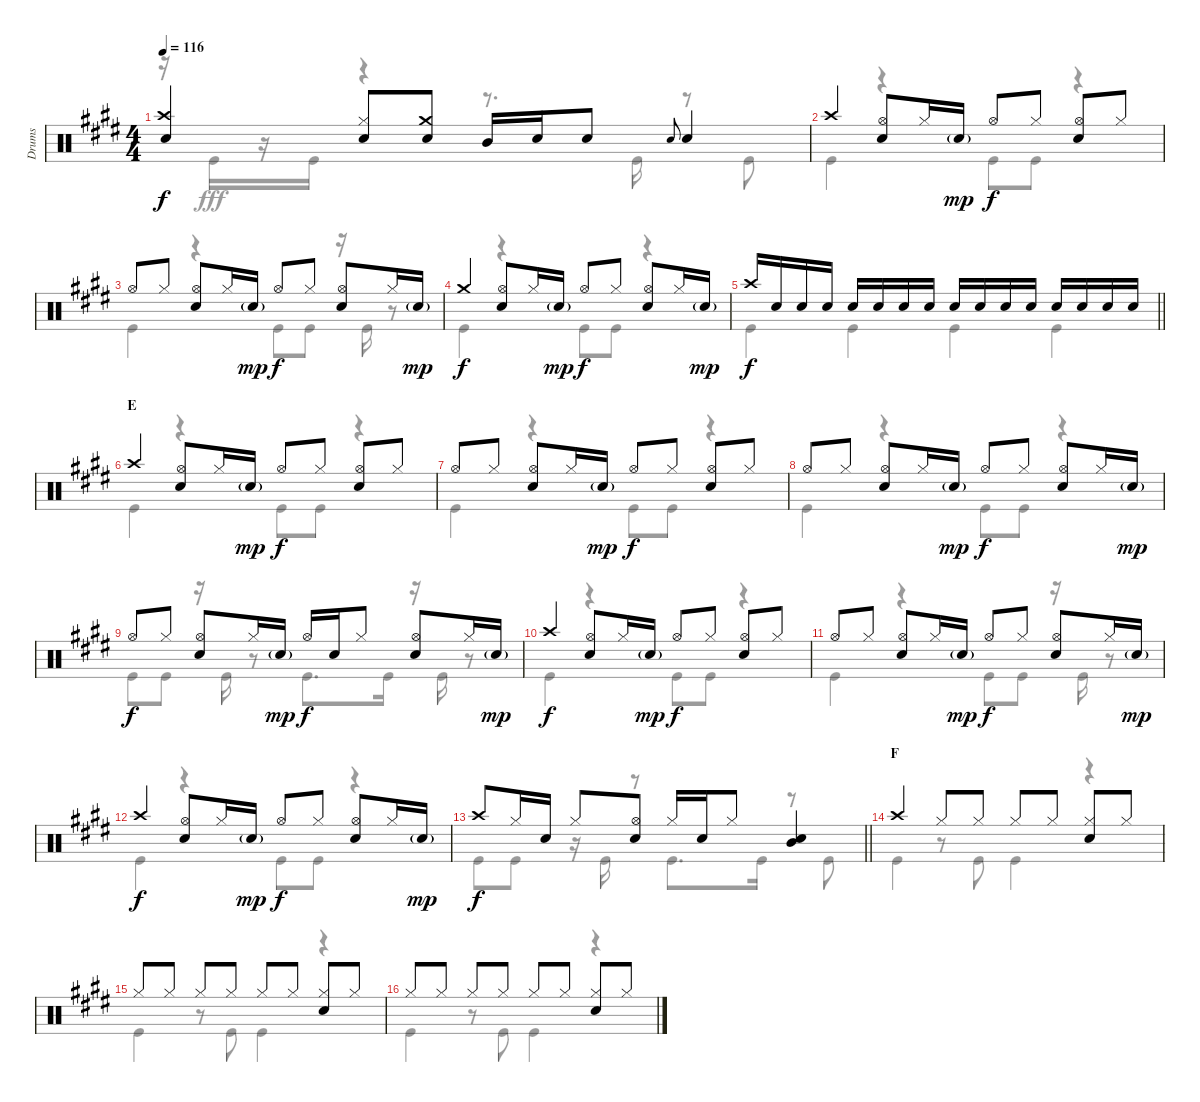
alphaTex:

\track ("Drums" "Drums") {instrument percussion}
\staff {score}
\articulation defaults
\voice
\ts (4 4)
\tempo 116
\clef neutral
\ks e
("Crash high (hit)" "Snare (hit) 2").4{dy f} ("Hi-Hat (closed)" "Snare (hit) 2").8 ("Crash medium (hit)" "Snare (hit) 2").8 "Mid Tom (hit)".16 "Snare (hit) 2".16 "Snare (hit) 2".8 "Snare (hit) 2".8{gr onbeat} "Snare (hit) 2".4 |
"Crash high (hit)".4 ("Hi-Hat (open)" "Snare (hit) 2").8 "Hi-Hat (closed)".16 "Snare (hit) 2"{g}.16{dy mp} "Hi-Hat (open)".8{dy f} "Hi-Hat (closed)".8 ("Snare (hit) 2" "Hi-Hat (open)").8 "Hi-Hat (closed)".8 |
"Hi-Hat (open)".8 "Hi-Hat (closed)".8 ("Hi-Hat (open)" "Snare (hit) 2").8 "Hi-Hat (closed)".16 "Snare (hit) 2"{g}.16{dy mp} "Hi-Hat (open)".8{dy f} "Hi-Hat (closed)".8 ("Hi-Hat (open)" "Snare (hit) 2").8 "Hi-Hat (closed)".16 "Snare (hit) 2"{g}.16{dy mp} |
"Crash medium (hit)".4{dy f} ("Hi-Hat (open)" "Snare (hit) 2").8 "Hi-Hat (closed)".16 "Snare (hit) 2"{g}.16{dy mp} "Hi-Hat (open)".8{dy f} "Hi-Hat (closed)".8 ("Hi-Hat (open)" "Snare (hit) 2").8 "Hi-Hat (closed)".16 "Snare (hit) 2"{g}.16{dy mp} |
\barLineRight lightlight "Crash high (hit)".16{dy f} "Snare (hit) 2".16 "Snare (hit) 2".16 "Snare (hit) 2".16 "Snare (hit) 2".16 "Snare (hit) 2".16 "Snare (hit) 2".16 "Snare (hit) 2".16 "Snare (hit) 2".16 "Snare (hit) 2".16 "Snare (hit) 2".16 "Snare (hit) 2".16 "Snare (hit) 2".16 "Snare (hit) 2".16 "Snare (hit) 2".16 "Snare (hit) 2".16
|
\section ("" "E")
"Crash high (hit)".4 ("Hi-Hat (open)" "Snare (hit) 2").8 "Hi-Hat (closed)".16 "Snare (hit) 2"{g}.16{dy mp} "Hi-Hat (open)".8{dy f} "Hi-Hat (closed)".8 ("Snare (hit) 2" "Hi-Hat (open)").8 "Hi-Hat (closed)".8 |
"Hi-Hat (open)".8 "Hi-Hat (closed)".8 ("Hi-Hat (open)" "Snare (hit) 2").8 "Hi-Hat (closed)".16 "Snare (hit) 2"{g}.16{dy mp} "Hi-Hat (open)".8{dy f} "Hi-Hat (closed)".8 ("Hi-Hat (open)" "Snare (hit) 2").8 "Hi-Hat (closed)".8 |
"Hi-Hat (open)".8 "Hi-Hat (closed)".8 ("Hi-Hat (open)" "Snare (hit) 2").8 "Hi-Hat (closed)".16 "Snare (hit) 2"{g}.16{dy mp} "Hi-Hat (open)".8{dy f} "Hi-Hat (closed)".8 ("Hi-Hat (open)" "Snare (hit) 2").8 "Hi-Hat (closed)".16 "Snare (hit) 2"{g}.16{dy mp} |
"Hi-Hat (open)".8{dy f} "Hi-Hat (closed)".8 ("Hi-Hat (open)" "Snare (hit) 2").8 "Hi-Hat (closed)".16 "Snare (hit) 2"{g}.16{dy mp} "Hi-Hat (open)".16{dy f} "Snare (hit) 2".16 "Hi-Hat (closed)".8 ("Hi-Hat (open)" "Snare (hit) 2").8 "Hi-Hat (closed)".16 "Snare (hit) 2"{g}.16{dy mp} |
"Crash high (hit)".4{dy f} ("Hi-Hat (open)" "Snare (hit) 2").8 "Hi-Hat (closed)".16 "Snare (hit) 2"{g}.16{dy mp} "Hi-Hat (open)".8{dy f} "Hi-Hat (closed)".8 ("Snare (hit) 2" "Hi-Hat (open)").8 "Hi-Hat (closed)".8 |
"Hi-Hat (open)".8 "Hi-Hat (closed)".8 ("Hi-Hat (open)" "Snare (hit) 2").8 "Hi-Hat (closed)".16 "Snare (hit) 2"{g}.16{dy mp} "Hi-Hat (open)".8{dy f} "Hi-Hat (closed)".8 ("Hi-Hat (open)" "Snare (hit) 2").8 "Hi-Hat (closed)".16 "Snare (hit) 2"{g}.16{dy mp} |
"Crash high (hit)".4{dy f} ("Hi-Hat (open)" "Snare (hit) 2").8 "Hi-Hat (closed)".16 "Snare (hit) 2"{g}.16{dy mp} "Hi-Hat (open)".8{dy f} "Hi-Hat (closed)".8 ("Hi-Hat (open)" "Snare (hit) 2").8 "Hi-Hat (closed)".16 "Snare (hit) 2"{g}.16{dy mp} |
\barLineRight lightlight "Crash high (hit)".8{dy f} "Hi-Hat (closed)".16 "Snare (hit) 2".16 "Hi-Hat (closed)".8
("Hi-Hat (open)" "Snare (hit) 2").8 "Hi-Hat (closed)".16 "Snare (hit) 2".16 "Hi-Hat (closed)".8 ("Snare (hit) 2" "Mid Tom (hit)").4 |
\section ("" "F")
"Crash high (hit)".4 "Hi-Hat (closed)".8 "Hi-Hat (closed)".8 "Hi-Hat (closed)".8 "Hi-Hat (closed)".8 ("Hi-Hat (closed)" "Snare (hit) 2").8 "Hi-Hat (closed)".8 |
"Hi-Hat (closed)".8 "Hi-Hat (closed)".8 "Hi-Hat (closed)".8 "Hi-Hat (closed)".8 "Hi-Hat (closed)".8 "Hi-Hat (closed)".8 ("Hi-Hat (closed)" "Snare (hit) 2").8 "Hi-Hat (closed)".8 |
"Hi-Hat (closed)".8 "Hi-Hat (closed)".8 "Hi-Hat (closed)".8 "Hi-Hat (closed)".8 "Hi-Hat (closed)".8 "Hi-Hat (closed)".8 ("Hi-Hat (closed)" "Snare (hit) 2").8 "Hi-Hat (closed)".8
\voice
\clef neutral
\ottava regular
\simile none
\ks e
r.16{dy fff} "Kick (hit)".16 r.16 "Kick (hit)".16 r.4 r.8{d} "Kick (hit)".16 r.8 "Kick (hit)".8 |
"Kick (hit)".4 r.4 "Kick (hit)".8 "Kick (hit)".8 r.4 |
"Kick (hit)".4 r.4 "Kick (hit)".8 "Kick (hit)".8 r.16 "Kick (hit)".16 r.8 |
"Kick (hit)".4 r.4 "Kick (hit)".8 "Kick (hit)".8 r.4 |
\barLineRight lightlight "Kick (hit)".4 "Kick (hit)".4 "Kick (hit)".4 "Kick (hit)".4
|
"Kick (hit)".4 r.4 "Kick (hit)".8 "Kick (hit)".8 r.4 |
"Kick (hit)".4 r.4 "Kick (hit)".8 "Kick (hit)".8 r.4 |
"Kick (hit)".4 r.4 "Kick (hit)".8 "Kick (hit)".8 r.4 |
"Kick (hit)".8 "Kick (hit)".8 r.16 "Kick (hit)".16 r.8 "Kick (hit)".8{d} "Kick (hit)".16 r.16 "Kick (hit)".16 r.8 |
"Kick (hit)".4 r.4 "Kick (hit)".8 "Kick (hit)".8 r.4 |
"Kick (hit)".4 r.4 "Kick (hit)".8 "Kick (hit)".8 r.16 "Kick (hit)".16 r.8 |
"Kick (hit)".4 r.4 "Kick (hit)".8 "Kick (hit)".8 r.4 |
\barLineRight lightlight "Kick (hit)".8 "Kick (hit)".8
r.16 "Kick (hit)".16 r.8 "Kick (hit)".8{d} "Kick (hit)".16 r.8 "Kick (hit)".8 |
"Kick (hit)".4 r.8 "Kick (hit)".8 "Kick (hit)".4 r.4 |
"Kick (hit)".4 r.8 "Kick (hit)".8 "Kick (hit)".4 r.4 |
"Kick (hit)".4 r.8 "Kick (hit)".8 "Kick (hit)".4 r.4
